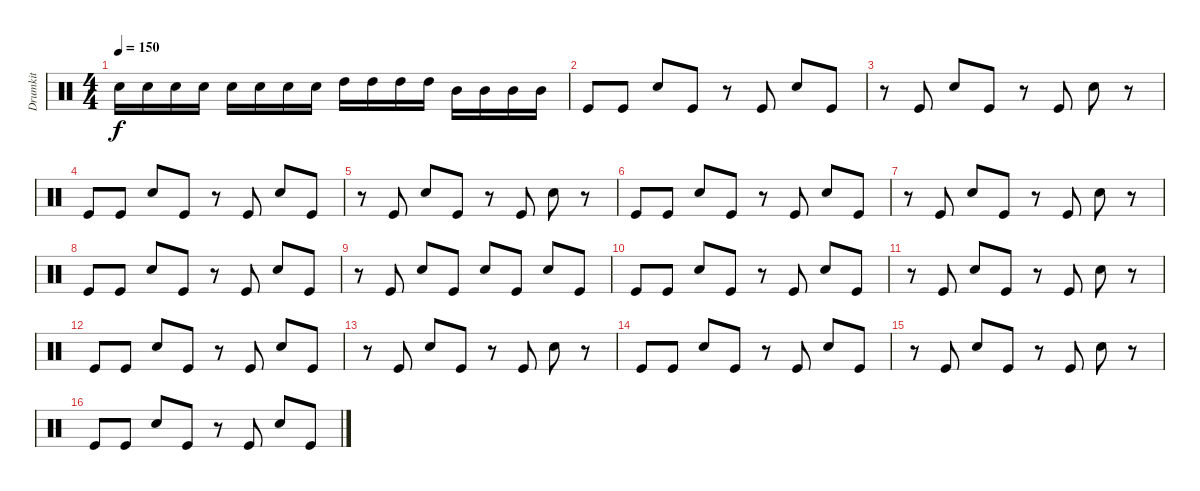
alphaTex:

\track ("Drumkit" "Drumkit") {instrument percussion}
\staff {score}
\articulation defaults
\ts (4 4)
\tempo 150
\clef neutral
\ks c "Snare (hit) 2".16{dy f} "Snare (hit) 2".16 "Snare (hit) 2".16 "Snare (hit) 2".16 "Snare (hit) 2".16 "Snare (hit) 2".16 "Snare (hit) 2".16 "Snare (hit) 2".16 "High Tom (hit)".16 "High Tom (hit)".16 "High Tom (hit)".16 "High Tom (hit)".16 "Mid Tom (hit)".16 "Mid Tom (hit)".16 "Mid Tom (hit)".16 "Mid Tom (hit)".16
|
"Kick (hit)".8 "Kick (hit)".8 "Snare (hit) 2".8 "Kick (hit)".8 r.8 "Kick (hit)".8 "Snare (hit) 2".8 "Kick (hit)".8 |
r.8 "Kick (hit)".8 "Snare (hit) 2".8 "Kick (hit)".8 r.8 "Kick (hit)".8 "Snare (hit) 2".8 r.8 |
"Kick (hit)".8 "Kick (hit)".8 "Snare (hit) 2".8 "Kick (hit)".8 r.8 "Kick (hit)".8 "Snare (hit) 2".8 "Kick (hit)".8 |
r.8 "Kick (hit)".8 "Snare (hit) 2".8 "Kick (hit)".8 r.8 "Kick (hit)".8 "Snare (hit) 2".8 r.8 |
"Kick (hit)".8 "Kick (hit)".8 "Snare (hit) 2".8 "Kick (hit)".8 r.8 "Kick (hit)".8 "Snare (hit) 2".8 "Kick (hit)".8 |
r.8 "Kick (hit)".8 "Snare (hit) 2".8 "Kick (hit)".8 r.8 "Kick (hit)".8 "Snare (hit) 2".8 r.8 |
"Kick (hit)".8 "Kick (hit)".8 "Snare (hit) 2".8 "Kick (hit)".8 r.8 "Kick (hit)".8 "Snare (hit) 2".8 "Kick (hit)".8 |
r.8 "Kick (hit)".8 "Snare (hit) 2".8 "Kick (hit)".8 "Snare (hit) 2".8 "Kick (hit)".8 "Snare (hit) 2".8 "Kick (hit)".8 |
"Kick (hit)".8 "Kick (hit)".8 "Snare (hit) 2".8 "Kick (hit)".8 r.8 "Kick (hit)".8 "Snare (hit) 2".8 "Kick (hit)".8 |
r.8 "Kick (hit)".8 "Snare (hit) 2".8 "Kick (hit)".8 r.8 "Kick (hit)".8 "Snare (hit) 2".8 r.8 |
"Kick (hit)".8 "Kick (hit)".8 "Snare (hit) 2".8 "Kick (hit)".8 r.8 "Kick (hit)".8 "Snare (hit) 2".8 "Kick (hit)".8 |
r.8 "Kick (hit)".8 "Snare (hit) 2".8 "Kick (hit)".8 r.8 "Kick (hit)".8 "Snare (hit) 2".8 r.8 |
"Kick (hit)".8 "Kick (hit)".8 "Snare (hit) 2".8 "Kick (hit)".8 r.8 "Kick (hit)".8 "Snare (hit) 2".8 "Kick (hit)".8 |
r.8 "Kick (hit)".8 "Snare (hit) 2".8 "Kick (hit)".8 r.8 "Kick (hit)".8 "Snare (hit) 2".8 r.8 |
"Kick (hit)".8 "Kick (hit)".8 "Snare (hit) 2".8 "Kick (hit)".8 r.8 "Kick (hit)".8 "Snare (hit) 2".8 "Kick (hit)".8
